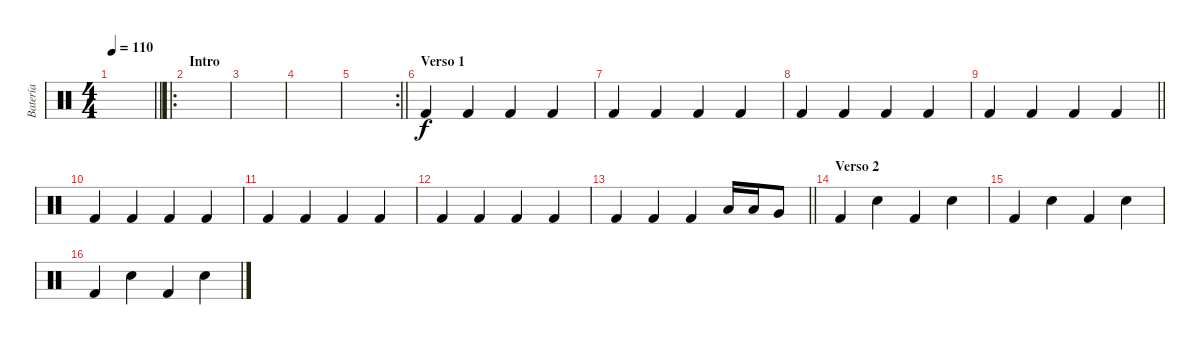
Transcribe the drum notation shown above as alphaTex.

\track ("Batería" "Batería") {instrument percussion}
\staff {score}
\articulation defaults
\ts (4 4)
\tempo 110
\clef neutral
\barLineRight lightlight
\ks c
|
\ro
\section ("" "Intro")
|
|
|
\rc 2
\barLineRight lightlight
|
\section ("" "Verso 1")
"Kick (hit) 2".4 "Kick (hit) 2".4 "Kick (hit) 2".4 "Kick (hit) 2".4 |
"Kick (hit) 2".4 "Kick (hit) 2".4 "Kick (hit) 2".4 "Kick (hit) 2".4 |
"Kick (hit) 2".4 "Kick (hit) 2".4 "Kick (hit) 2".4 "Kick (hit) 2".4 |
\barLineRight lightlight "Kick (hit) 2".4 "Kick (hit) 2".4 "Kick (hit) 2".4 "Kick (hit) 2".4
|
"Kick (hit) 2".4 "Kick (hit) 2".4 "Kick (hit) 2".4 "Kick (hit) 2".4 |
"Kick (hit) 2".4 "Kick (hit) 2".4 "Kick (hit) 2".4 "Kick (hit) 2".4 |
"Kick (hit) 2".4 "Kick (hit) 2".4 "Kick (hit) 2".4 "Kick (hit) 2".4 |
\barLineRight lightlight "Kick (hit) 2".4 "Kick (hit) 2".4 "Kick (hit) 2".4 "Low Tom (hit)".16 "Low Tom (hit)".16 "Very Low Tom (hit)".8
|
\section ("" "Verso 2")
"Kick (hit) 2".4 "Snare (hit) 2".4 "Kick (hit) 2".4 "Snare (hit) 2".4 |
"Kick (hit) 2".4 "Snare (hit) 2".4 "Kick (hit) 2".4 "Snare (hit) 2".4 |
"Kick (hit) 2".4 "Snare (hit) 2".4 "Kick (hit) 2".4 "Snare (hit) 2".4
